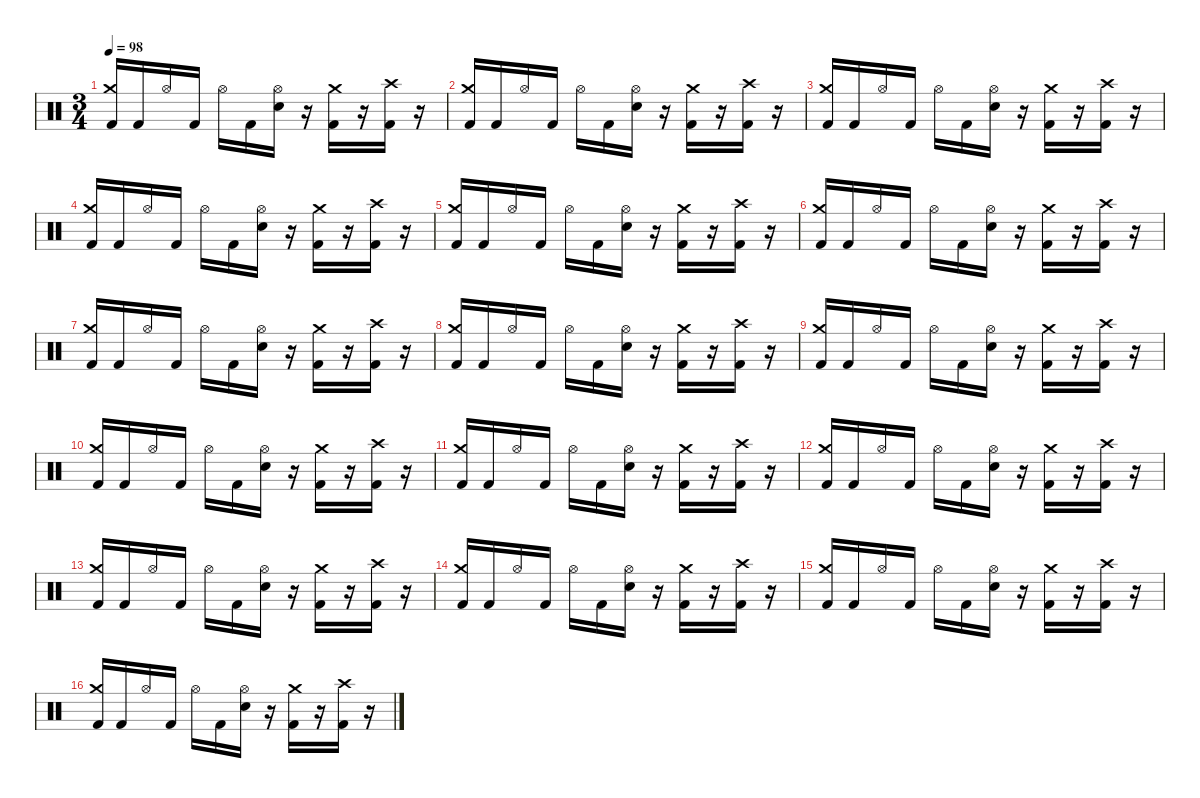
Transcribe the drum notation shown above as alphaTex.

\defaultSystemsLayout 4
\hideDynamics
\bracketExtendMode nobrackets
\singleTrackTrackNamePolicy hidden
\multiTrackTrackNamePolicy hidden
\firstSystemTrackNameMode fullname
\firstSystemTrackNameOrientation horizontal
\otherSystemsTrackNameOrientation horizontal
\track ("Drums" "drm.") {instrument percussion}
\staff {score}
\articulation defaults
\ts (3 4)
\tempo 98
\clef neutral
\ks c
("Crash medium (hit)" "Kick (hit) 2").16{dy f beam Up} "Kick (hit) 2".16{beam Up} "Hi-Hat (open)".16{beam Up} "Kick (hit) 2".16{beam Up} "Hi-Hat (open)".16{beam Down} "Kick (hit) 2".16{beam Down} ("Hi-Hat (open)" "Snare (hit) 2").16{beam Down} r.16{beam Down} ("Crash medium (hit)" "Kick (hit) 2").16{beam Down} r.16{beam Down} ("Crash high (hit)" "Kick (hit) 2").16{beam Down} r.16{beam Down} |
("Crash medium (hit)" "Kick (hit) 2").16{beam Up} "Kick (hit) 2".16{beam Up} "Hi-Hat (open)".16{beam Up} "Kick (hit) 2".16{beam Up} "Hi-Hat (open)".16{beam Down} "Kick (hit) 2".16{beam Down} ("Hi-Hat (open)" "Snare (hit) 2").16{beam Down} r.16{beam Down} ("Crash medium (hit)" "Kick (hit) 2").16{beam Down} r.16{beam Down} ("Crash high (hit)" "Kick (hit) 2").16{beam Down} r.16{beam Down} |
("Crash medium (hit)" "Kick (hit) 2").16{beam Up} "Kick (hit) 2".16{beam Up} "Hi-Hat (open)".16{beam Up} "Kick (hit) 2".16{beam Up} "Hi-Hat (open)".16{beam Down} "Kick (hit) 2".16{beam Down} ("Hi-Hat (open)" "Snare (hit) 2").16{beam Down} r.16{beam Down} ("Crash medium (hit)" "Kick (hit) 2").16{beam Down} r.16{beam Down} ("Crash high (hit)" "Kick (hit) 2").16{beam Down} r.16{beam Down} |
("Crash medium (hit)" "Kick (hit) 2").16{beam Up} "Kick (hit) 2".16{beam Up} "Hi-Hat (open)".16{beam Up} "Kick (hit) 2".16{beam Up} "Hi-Hat (open)".16{beam Down} "Kick (hit) 2".16{beam Down} ("Hi-Hat (open)" "Snare (hit) 2").16{beam Down} r.16{beam Down} ("Crash medium (hit)" "Kick (hit) 2").16{beam Down} r.16{beam Down} ("Crash high (hit)" "Kick (hit) 2").16{beam Down} r.16{beam Down} |
("Crash medium (hit)" "Kick (hit) 2").16{beam Up} "Kick (hit) 2".16{beam Up} "Hi-Hat (open)".16{beam Up} "Kick (hit) 2".16{beam Up} "Hi-Hat (open)".16{beam Down} "Kick (hit) 2".16{beam Down} ("Hi-Hat (open)" "Snare (hit) 2").16{beam Down} r.16{beam Down} ("Crash medium (hit)" "Kick (hit) 2").16{beam Down} r.16{beam Down} ("Crash high (hit)" "Kick (hit) 2").16{beam Down} r.16{beam Down} |
("Crash medium (hit)" "Kick (hit) 2").16{beam Up} "Kick (hit) 2".16{beam Up} "Hi-Hat (open)".16{beam Up} "Kick (hit) 2".16{beam Up} "Hi-Hat (open)".16{beam Down} "Kick (hit) 2".16{beam Down} ("Hi-Hat (open)" "Snare (hit) 2").16{beam Down} r.16{beam Down} ("Crash medium (hit)" "Kick (hit) 2").16{beam Down} r.16{beam Down} ("Crash high (hit)" "Kick (hit) 2").16{beam Down} r.16{beam Down} |
("Crash medium (hit)" "Kick (hit) 2").16{beam Up} "Kick (hit) 2".16{beam Up} "Hi-Hat (open)".16{beam Up} "Kick (hit) 2".16{beam Up} "Hi-Hat (open)".16{beam Down} "Kick (hit) 2".16{beam Down} ("Hi-Hat (open)" "Snare (hit) 2").16{beam Down} r.16{beam Down} ("Crash medium (hit)" "Kick (hit) 2").16{beam Down} r.16{beam Down} ("Crash high (hit)" "Kick (hit) 2").16{beam Down} r.16{beam Down} |
("Crash medium (hit)" "Kick (hit) 2").16{beam Up} "Kick (hit) 2".16{beam Up} "Hi-Hat (open)".16{beam Up} "Kick (hit) 2".16{beam Up} "Hi-Hat (open)".16{beam Down} "Kick (hit) 2".16{beam Down} ("Hi-Hat (open)" "Snare (hit) 2").16{beam Down} r.16{beam Down} ("Crash medium (hit)" "Kick (hit) 2").16{beam Down} r.16{beam Down} ("Crash high (hit)" "Kick (hit) 2").16{beam Down} r.16{beam Down} |
("Crash medium (hit)" "Kick (hit) 2").16{beam Up} "Kick (hit) 2".16{beam Up} "Hi-Hat (open)".16{beam Up} "Kick (hit) 2".16{beam Up} "Hi-Hat (open)".16{beam Down} "Kick (hit) 2".16{beam Down} ("Hi-Hat (open)" "Snare (hit) 2").16{beam Down} r.16{beam Down} ("Crash medium (hit)" "Kick (hit) 2").16{beam Down} r.16{beam Down} ("Crash high (hit)" "Kick (hit) 2").16{beam Down} r.16{beam Down} |
("Crash medium (hit)" "Kick (hit) 2").16{beam Up} "Kick (hit) 2".16{beam Up} "Hi-Hat (open)".16{beam Up} "Kick (hit) 2".16{beam Up} "Hi-Hat (open)".16{beam Down} "Kick (hit) 2".16{beam Down} ("Hi-Hat (open)" "Snare (hit) 2").16{beam Down} r.16{beam Down} ("Crash medium (hit)" "Kick (hit) 2").16{beam Down} r.16{beam Down} ("Crash high (hit)" "Kick (hit) 2").16{beam Down} r.16{beam Down} |
("Crash medium (hit)" "Kick (hit) 2").16{beam Up} "Kick (hit) 2".16{beam Up} "Hi-Hat (open)".16{beam Up} "Kick (hit) 2".16{beam Up} "Hi-Hat (open)".16{beam Down} "Kick (hit) 2".16{beam Down} ("Hi-Hat (open)" "Snare (hit) 2").16{beam Down} r.16{beam Down} ("Crash medium (hit)" "Kick (hit) 2").16{beam Down} r.16{beam Down} ("Crash high (hit)" "Kick (hit) 2").16{beam Down} r.16{beam Down} |
("Crash medium (hit)" "Kick (hit) 2").16{beam Up} "Kick (hit) 2".16{beam Up} "Hi-Hat (open)".16{beam Up} "Kick (hit) 2".16{beam Up} "Hi-Hat (open)".16{beam Down} "Kick (hit) 2".16{beam Down} ("Hi-Hat (open)" "Snare (hit) 2").16{beam Down} r.16{beam Down} ("Crash medium (hit)" "Kick (hit) 2").16{beam Down} r.16{beam Down} ("Crash high (hit)" "Kick (hit) 2").16{beam Down} r.16{beam Down} |
("Crash medium (hit)" "Kick (hit) 2").16{beam Up} "Kick (hit) 2".16{beam Up} "Hi-Hat (open)".16{beam Up} "Kick (hit) 2".16{beam Up} "Hi-Hat (open)".16{beam Down} "Kick (hit) 2".16{beam Down} ("Hi-Hat (open)" "Snare (hit) 2").16{beam Down} r.16{beam Down} ("Crash medium (hit)" "Kick (hit) 2").16{beam Down} r.16{beam Down} ("Crash high (hit)" "Kick (hit) 2").16{beam Down} r.16{beam Down} |
("Crash medium (hit)" "Kick (hit) 2").16{beam Up} "Kick (hit) 2".16{beam Up} "Hi-Hat (open)".16{beam Up} "Kick (hit) 2".16{beam Up} "Hi-Hat (open)".16{beam Down} "Kick (hit) 2".16{beam Down} ("Hi-Hat (open)" "Snare (hit) 2").16{beam Down} r.16{beam Down} ("Crash medium (hit)" "Kick (hit) 2").16{beam Down} r.16{beam Down} ("Crash high (hit)" "Kick (hit) 2").16{beam Down} r.16{beam Down} |
("Crash medium (hit)" "Kick (hit) 2").16{beam Up} "Kick (hit) 2".16{beam Up} "Hi-Hat (open)".16{beam Up} "Kick (hit) 2".16{beam Up} "Hi-Hat (open)".16{beam Down} "Kick (hit) 2".16{beam Down} ("Hi-Hat (open)" "Snare (hit) 2").16{beam Down} r.16{beam Down} ("Crash medium (hit)" "Kick (hit) 2").16{beam Down} r.16{beam Down} ("Crash high (hit)" "Kick (hit) 2").16{beam Down} r.16{beam Down} |
("Crash medium (hit)" "Kick (hit) 2").16{beam Up} "Kick (hit) 2".16{beam Up} "Hi-Hat (open)".16{beam Up} "Kick (hit) 2".16{beam Up} "Hi-Hat (open)".16{beam Down} "Kick (hit) 2".16{beam Down} ("Hi-Hat (open)" "Snare (hit) 2").16{beam Down} r.16{beam Down} ("Crash medium (hit)" "Kick (hit) 2").16{beam Down} r.16{beam Down} ("Crash high (hit)" "Kick (hit) 2").16{beam Down} r.16{beam Down}
